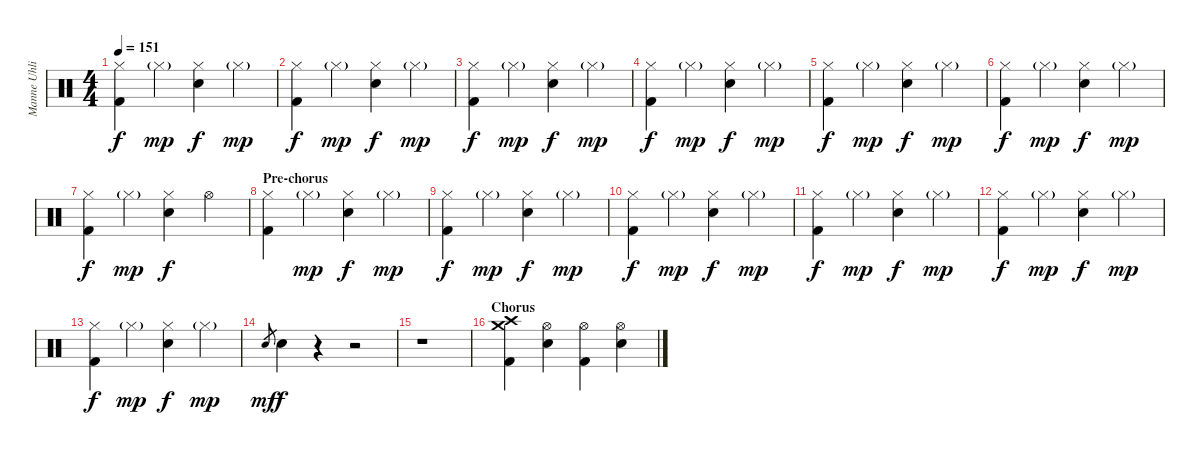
\track ("Manne Uhlig" "Manne Uhli") {instrument percussion}
\staff {score}
\articulation defaults
\ts (4 4)
\tempo 151
\clef neutral
\ks c
("Hi-Hat (closed)" "Kick (hit) 2").4{dy f} "Hi-Hat (closed)"{g}.4{dy mp} ("Hi-Hat (closed)" "Snare (hit) 2").4{dy f} "Hi-Hat (closed)"{g}.4{dy mp} |
("Hi-Hat (closed)" "Kick (hit) 2").4{dy f} "Hi-Hat (closed)"{g}.4{dy mp} ("Hi-Hat (closed)" "Snare (hit) 2").4{dy f} "Hi-Hat (closed)"{g}.4{dy mp} |
("Hi-Hat (closed)" "Kick (hit) 2").4{dy f} "Hi-Hat (closed)"{g}.4{dy mp} ("Hi-Hat (closed)" "Snare (hit) 2").4{dy f} "Hi-Hat (closed)"{g}.4{dy mp} |
("Hi-Hat (closed)" "Kick (hit) 2").4{dy f} "Hi-Hat (closed)"{g}.4{dy mp} ("Hi-Hat (closed)" "Snare (hit) 2").4{dy f} "Hi-Hat (closed)"{g}.4{dy mp} |
("Hi-Hat (closed)" "Kick (hit) 2").4{dy f} "Hi-Hat (closed)"{g}.4{dy mp} ("Hi-Hat (closed)" "Snare (hit) 2").4{dy f} "Hi-Hat (closed)"{g}.4{dy mp} |
("Hi-Hat (closed)" "Kick (hit) 2").4{dy f} "Hi-Hat (closed)"{g}.4{dy mp} ("Hi-Hat (closed)" "Snare (hit) 2").4{dy f} "Hi-Hat (closed)"{g}.4{dy mp} |
("Hi-Hat (closed)" "Kick (hit) 2").4{dy f} "Hi-Hat (closed)"{g}.4{dy mp} ("Hi-Hat (closed)" "Snare (hit) 2").4{dy f} "Hi-Hat (open)".4 |
\section ("" "Pre-chorus")
("Hi-Hat (closed)" "Kick (hit) 2").4 "Hi-Hat (closed)"{g}.4{dy mp} ("Hi-Hat (closed)" "Snare (hit) 2").4{dy f} "Hi-Hat (closed)"{g}.4{dy mp} |
("Hi-Hat (closed)" "Kick (hit) 2").4{dy f} "Hi-Hat (closed)"{g}.4{dy mp} ("Hi-Hat (closed)" "Snare (hit) 2").4{dy f} "Hi-Hat (closed)"{g}.4{dy mp} |
("Hi-Hat (closed)" "Kick (hit) 2").4{dy f} "Hi-Hat (closed)"{g}.4{dy mp} ("Hi-Hat (closed)" "Snare (hit) 2").4{dy f} "Hi-Hat (closed)"{g}.4{dy mp} |
("Hi-Hat (closed)" "Kick (hit) 2").4{dy f} "Hi-Hat (closed)"{g}.4{dy mp} ("Hi-Hat (closed)" "Snare (hit) 2").4{dy f} "Hi-Hat (closed)"{g}.4{dy mp} |
("Hi-Hat (closed)" "Kick (hit) 2").4{dy f} "Hi-Hat (closed)"{g}.4{dy mp} ("Hi-Hat (closed)" "Snare (hit) 2").4{dy f} "Hi-Hat (closed)"{g}.4{dy mp} |
("Hi-Hat (closed)" "Kick (hit) 2").4{dy f} "Hi-Hat (closed)"{g}.4{dy mp} ("Hi-Hat (closed)" "Snare (hit) 2").4{dy f} "Hi-Hat (closed)"{g}.4{dy mp} |
"Snare (hit) 2".8{gr dy mf} "Snare (hit) 2".4{dy f} r.4 r.2 |
r.1 |
\section ("" "Chorus")
("Crash high (hit)" "Crash medium (hit)" "Kick (hit) 2").4 ("Hi-Hat (open)" "Snare (hit) 2").4 ("Hi-Hat (open)" "Kick (hit) 2").4 ("Hi-Hat (open)" "Snare (hit) 2").4
